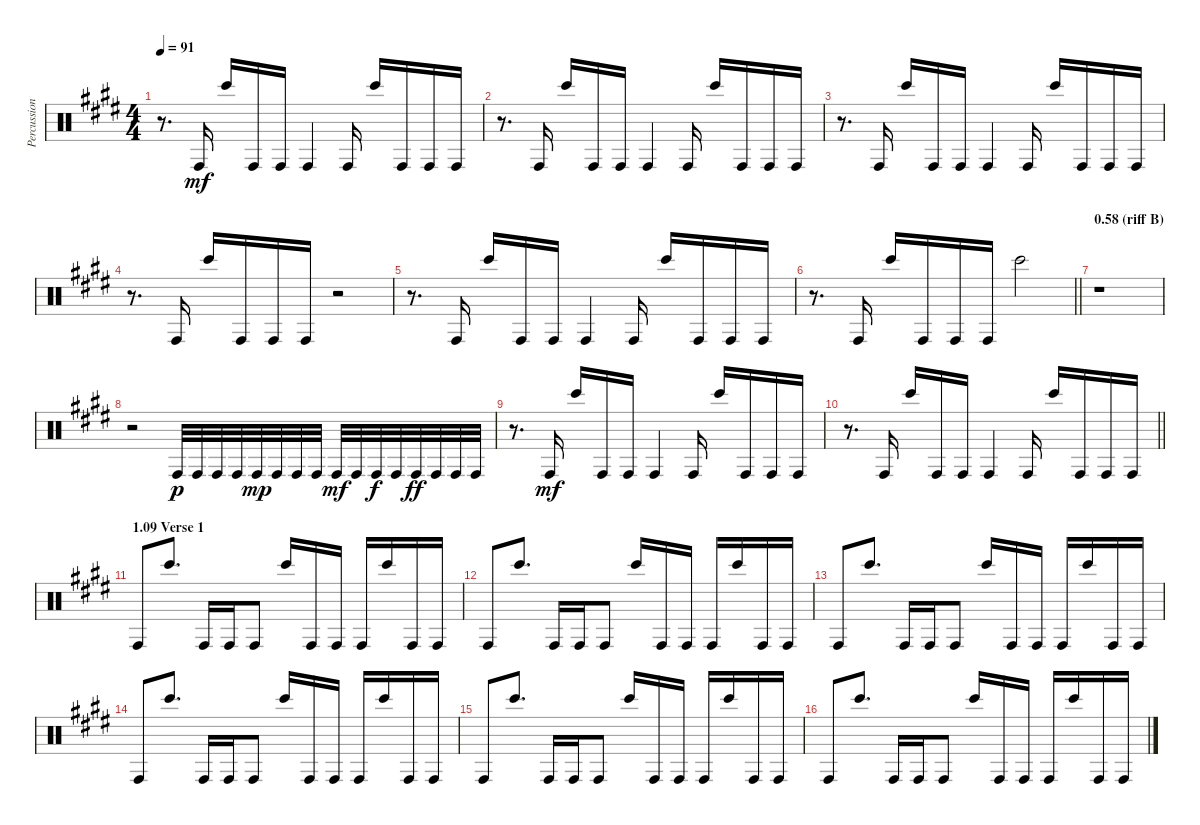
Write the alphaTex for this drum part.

\track ("Percussion" "Percussion") {instrument percussion}
\staff {score}
\articulation defaults
\ts (4 4)
\tempo 91
\clef neutral
\ks e
r.8{d dy mf} "Conga high (hit)".16 "Bongo High (hit)".16 "Conga high (hit)".16 "Conga high (hit)".16 "Conga high (hit)".4 "Conga high (hit)".16 "Bongo High (hit)".16 "Conga high (hit)".16 "Conga high (hit)".16 "Conga high (hit)".16 |
r.8{d} "Conga high (hit)".16 "Bongo High (hit)".16 "Conga high (hit)".16 "Conga high (hit)".16 "Conga high (hit)".4 "Conga high (hit)".16 "Bongo High (hit)".16 "Conga high (hit)".16 "Conga high (hit)".16 "Conga high (hit)".16 |
r.8{d} "Conga high (hit)".16 "Bongo High (hit)".16 "Conga high (hit)".16 "Conga high (hit)".16 "Conga high (hit)".4 "Conga high (hit)".16 "Bongo High (hit)".16 "Conga high (hit)".16 "Conga high (hit)".16 "Conga high (hit)".16 |
r.8{d} "Conga high (hit)".16 "Bongo High (hit)".16 "Conga high (hit)".16 "Conga high (hit)".16 "Conga high (hit)".16 r.2 |
r.8{d} "Conga high (hit)".16 "Bongo High (hit)".16 "Conga high (hit)".16 "Conga high (hit)".16 "Conga high (hit)".4 "Conga high (hit)".16 "Bongo High (hit)".16 "Conga high (hit)".16 "Conga high (hit)".16 "Conga high (hit)".16 |
\barLineRight lightlight
r.8{d} "Conga high (hit)".16 "Bongo High (hit)".16 "Conga high (hit)".16 "Conga high (hit)".16 "Conga high (hit)".16 "Bongo High (hit)".2 |
\section ("" "0.58 (riff B)")
r.1 |
r.2 "Conga high (hit)".32{dy p} "Conga high (hit)".32 "Conga high (hit)".32 "Conga high (hit)".32 "Conga high (hit)".32{dy mp} "Conga high (hit)".32 "Conga high (hit)".32 "Conga high (hit)".32 "Conga high (hit)".32{dy mf} "Conga high (hit)".32 "Conga high (hit)".32{dy f} "Conga high (hit)".32 "Conga high (hit)".32{dy ff} "Conga high (hit)".32 "Conga high (hit)".32 "Conga high (hit)".32 |
r.8{d} "Conga high (hit)".16{dy mf} "Bongo High (hit)".16 "Conga high (hit)".16 "Conga high (hit)".16 "Conga high (hit)".4 "Conga high (hit)".16 "Bongo High (hit)".16 "Conga high (hit)".16 "Conga high (hit)".16 "Conga high (hit)".16 |
\barLineRight lightlight
r.8{d} "Conga high (hit)".16 "Bongo High (hit)".16 "Conga high (hit)".16 "Conga high (hit)".16 "Conga high (hit)".4 "Conga high (hit)".16 "Bongo High (hit)".16 "Conga high (hit)".16 "Conga high (hit)".16 "Conga high (hit)".16 |
\section ("" "1.09 Verse 1")
"Conga high (hit)".8 "Bongo High (hit)".8{d} "Conga high (hit)".16 "Conga high (hit)".16 "Conga high (hit)".8 "Bongo High (hit)".16 "Conga high (hit)".16 "Conga high (hit)".16 "Conga high (hit)".16 "Bongo High (hit)".16 "Conga high (hit)".16 "Conga high (hit)".16 |
"Conga high (hit)".8 "Bongo High (hit)".8{d} "Conga high (hit)".16 "Conga high (hit)".16 "Conga high (hit)".8 "Bongo High (hit)".16 "Conga high (hit)".16 "Conga high (hit)".16 "Conga high (hit)".16 "Bongo High (hit)".16 "Conga high (hit)".16 "Conga high (hit)".16 |
"Conga high (hit)".8 "Bongo High (hit)".8{d} "Conga high (hit)".16 "Conga high (hit)".16 "Conga high (hit)".8 "Bongo High (hit)".16 "Conga high (hit)".16 "Conga high (hit)".16 "Conga high (hit)".16 "Bongo High (hit)".16 "Conga high (hit)".16 "Conga high (hit)".16 |
"Conga high (hit)".8 "Bongo High (hit)".8{d} "Conga high (hit)".16 "Conga high (hit)".16 "Conga high (hit)".8 "Bongo High (hit)".16 "Conga high (hit)".16 "Conga high (hit)".16 "Conga high (hit)".16 "Bongo High (hit)".16 "Conga high (hit)".16 "Conga high (hit)".16 |
"Conga high (hit)".8 "Bongo High (hit)".8{d} "Conga high (hit)".16 "Conga high (hit)".16 "Conga high (hit)".8 "Bongo High (hit)".16 "Conga high (hit)".16 "Conga high (hit)".16 "Conga high (hit)".16 "Bongo High (hit)".16 "Conga high (hit)".16 "Conga high (hit)".16 |
"Conga high (hit)".8 "Bongo High (hit)".8{d} "Conga high (hit)".16 "Conga high (hit)".16 "Conga high (hit)".8 "Bongo High (hit)".16 "Conga high (hit)".16 "Conga high (hit)".16 "Conga high (hit)".16 "Bongo High (hit)".16 "Conga high (hit)".16 "Conga high (hit)".16
